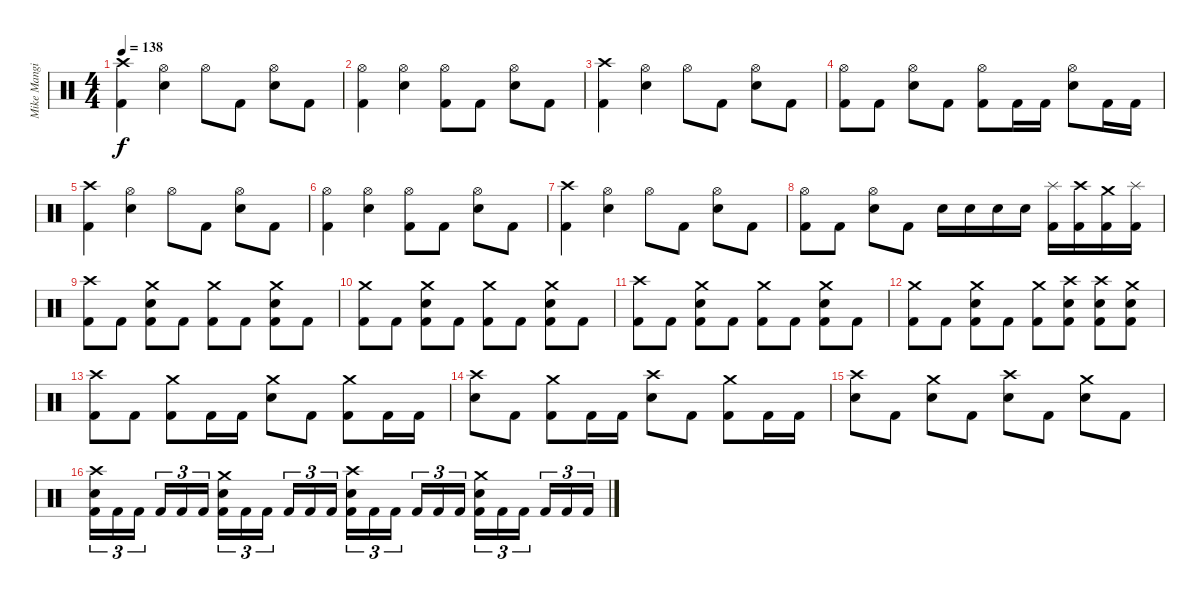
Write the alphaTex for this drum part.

\track ("Mike Mangini" "Mike Mangi") {instrument percussion}
\staff {score}
\articulation defaults
\ts (4 4)
\tempo 138
\clef neutral
\ks c
("Crash high (hit)" "Kick (hit) 2").4{dy f} ("Hi-Hat (open)" "Electric Snare (hit)").4 "Hi-Hat (open)".8 "Kick (hit) 2".8 ("Hi-Hat (open)" "Electric Snare (hit)").8 "Kick (hit) 2".8 |
("Hi-Hat (open)" "Kick (hit) 2").4 ("Hi-Hat (open)" "Electric Snare (hit)").4 ("Hi-Hat (open)" "Kick (hit) 2").8 "Kick (hit) 2".8 ("Hi-Hat (open)" "Electric Snare (hit)").8 "Kick (hit) 2".8 |
("Crash high (hit)" "Kick (hit) 2").4 ("Hi-Hat (open)" "Electric Snare (hit)").4 "Hi-Hat (open)".8 "Kick (hit) 2".8 ("Hi-Hat (open)" "Electric Snare (hit)").8 "Kick (hit) 2".8 |
("Hi-Hat (open)" "Kick (hit) 2").8 "Kick (hit) 2".8 ("Hi-Hat (open)" "Electric Snare (hit)").8 "Kick (hit) 2".8 ("Hi-Hat (open)" "Kick (hit) 2").8 "Kick (hit) 2".16 "Kick (hit) 2".16 ("Hi-Hat (open)" "Electric Snare (hit)").8 "Kick (hit) 2".16 "Kick (hit) 2".16 |
("Crash high (hit)" "Kick (hit) 2").4 ("Hi-Hat (open)" "Electric Snare (hit)").4 "Hi-Hat (open)".8 "Kick (hit) 2".8 ("Hi-Hat (open)" "Electric Snare (hit)").8 "Kick (hit) 2".8 |
("Hi-Hat (open)" "Kick (hit) 2").4 ("Hi-Hat (open)" "Electric Snare (hit)").4 ("Hi-Hat (open)" "Kick (hit) 2").8 "Kick (hit) 2".8 ("Hi-Hat (open)" "Electric Snare (hit)").8 "Kick (hit) 2".8 |
("Crash high (hit)" "Kick (hit) 2").4 ("Hi-Hat (open)" "Electric Snare (hit)").4 "Hi-Hat (open)".8 "Kick (hit) 2".8 ("Hi-Hat (open)" "Electric Snare (hit)").8 "Kick (hit) 2".8 |
("Hi-Hat (open)" "Kick (hit) 2").8 "Kick (hit) 2".8 ("Hi-Hat (open)" "Electric Snare (hit)").8 "Kick (hit) 2".8 "Electric Snare (hit)".16 "Electric Snare (hit)".16 "Electric Snare (hit)".16 "Electric Snare (hit)".16 ("Splash (hit)" "Kick (hit) 2").16 ("Crash high (hit)" "Kick (hit) 2").16 ("Crash medium (hit)" "Kick (hit) 2").16 ("Splash (hit)" "Kick (hit) 2").16 |
("Crash high (hit)" "Kick (hit) 2").8 "Kick (hit) 2".8 ("Crash medium (hit)" "Electric Snare (hit)" "Kick (hit) 2").8 "Kick (hit) 2".8 ("Crash medium (hit)" "Kick (hit) 2").8 "Kick (hit) 2".8 ("Crash medium (hit)" "Electric Snare (hit)" "Kick (hit) 2").8 "Kick (hit) 2".8 |
("Crash medium (hit)" "Kick (hit) 2").8 "Kick (hit) 2".8 ("Crash medium (hit)" "Electric Snare (hit)" "Kick (hit) 2").8 "Kick (hit) 2".8 ("Crash medium (hit)" "Kick (hit) 2").8 "Kick (hit) 2".8 ("Crash medium (hit)" "Electric Snare (hit)" "Kick (hit) 2").8 "Kick (hit) 2".8 |
("Crash high (hit)" "Kick (hit) 2").8 "Kick (hit) 2".8 ("Crash medium (hit)" "Electric Snare (hit)" "Kick (hit) 2").8 "Kick (hit) 2".8 ("Crash medium (hit)" "Kick (hit) 2").8 "Kick (hit) 2".8 ("Crash medium (hit)" "Electric Snare (hit)" "Kick (hit) 2").8 "Kick (hit) 2".8 |
("Crash medium (hit)" "Kick (hit) 2").8 "Kick (hit) 2".8 ("Crash medium (hit)" "Electric Snare (hit)" "Kick (hit) 2").8 "Kick (hit) 2".8 ("Crash medium (hit)" "Kick (hit) 2").8 ("Crash high (hit)" "Electric Snare (hit)" "Kick (hit) 2").8 ("Crash high (hit)" "Electric Snare (hit)" "Kick (hit) 2").8 ("Crash medium (hit)" "Electric Snare (hit)" "Kick (hit) 2").8 |
("Crash high (hit)" "Kick (hit) 2").8 "Kick (hit) 2".8 ("Crash medium (hit)" "Kick (hit) 2").8 "Kick (hit) 2".16 "Kick (hit) 2".16 ("Crash medium (hit)" "Electric Snare (hit)").8 "Kick (hit) 2".8 ("Crash medium (hit)" "Kick (hit) 2").8 "Kick (hit) 2".16 "Kick (hit) 2".16 |
("Crash high (hit)" "Electric Snare (hit)").8 "Kick (hit) 2".8 ("Crash medium (hit)" "Kick (hit) 2").8 "Kick (hit) 2".16 "Kick (hit) 2".16 ("Crash high (hit)" "Electric Snare (hit)").8 "Kick (hit) 2".8 ("Crash medium (hit)" "Kick (hit) 2").8 "Kick (hit) 2".16 "Kick (hit) 2".16 |
("Crash high (hit)" "Electric Snare (hit)").8 "Kick (hit) 2".8 ("Crash medium (hit)" "Electric Snare (hit)").8 "Kick (hit) 2".8 ("Crash high (hit)" "Electric Snare (hit)").8 "Kick (hit) 2".8 ("Crash medium (hit)" "Electric Snare (hit)").8 "Kick (hit) 2".8 |
("Crash high (hit)" "Electric Snare (hit)" "Kick (hit) 2").16{tu (3 2)} "Kick (hit) 2".16{tu (3 2)} "Kick (hit) 2".16{tu (3 2) beam splitsecondary} "Kick (hit) 2".16{tu (3 2)} "Kick (hit) 2".16{tu (3 2)} "Kick (hit) 2".16{tu (3 2)} ("Crash medium (hit)" "Electric Snare (hit)" "Kick (hit) 2").16{tu (3 2)} "Kick (hit) 2".16{tu (3 2)} "Kick (hit) 2".16{tu (3 2) beam splitsecondary} "Kick (hit) 2".16{tu (3 2)} "Kick (hit) 2".16{tu (3 2)} "Kick (hit) 2".16{tu (3 2)} ("Crash high (hit)" "Electric Snare (hit)" "Kick (hit) 2").16{tu (3 2)} "Kick (hit) 2".16{tu (3 2)} "Kick (hit) 2".16{tu (3 2) beam splitsecondary} "Kick (hit) 2".16{tu (3 2)} "Kick (hit) 2".16{tu (3 2)} "Kick (hit) 2".16{tu (3 2)} ("Crash medium (hit)" "Electric Snare (hit)" "Kick (hit) 2").16{tu (3 2)} "Kick (hit) 2".16{tu (3 2)} "Kick (hit) 2".16{tu (3 2) beam splitsecondary} "Kick (hit) 2".16{tu (3 2)} "Kick (hit) 2".16{tu (3 2)} "Kick (hit) 2".16{tu (3 2)}
